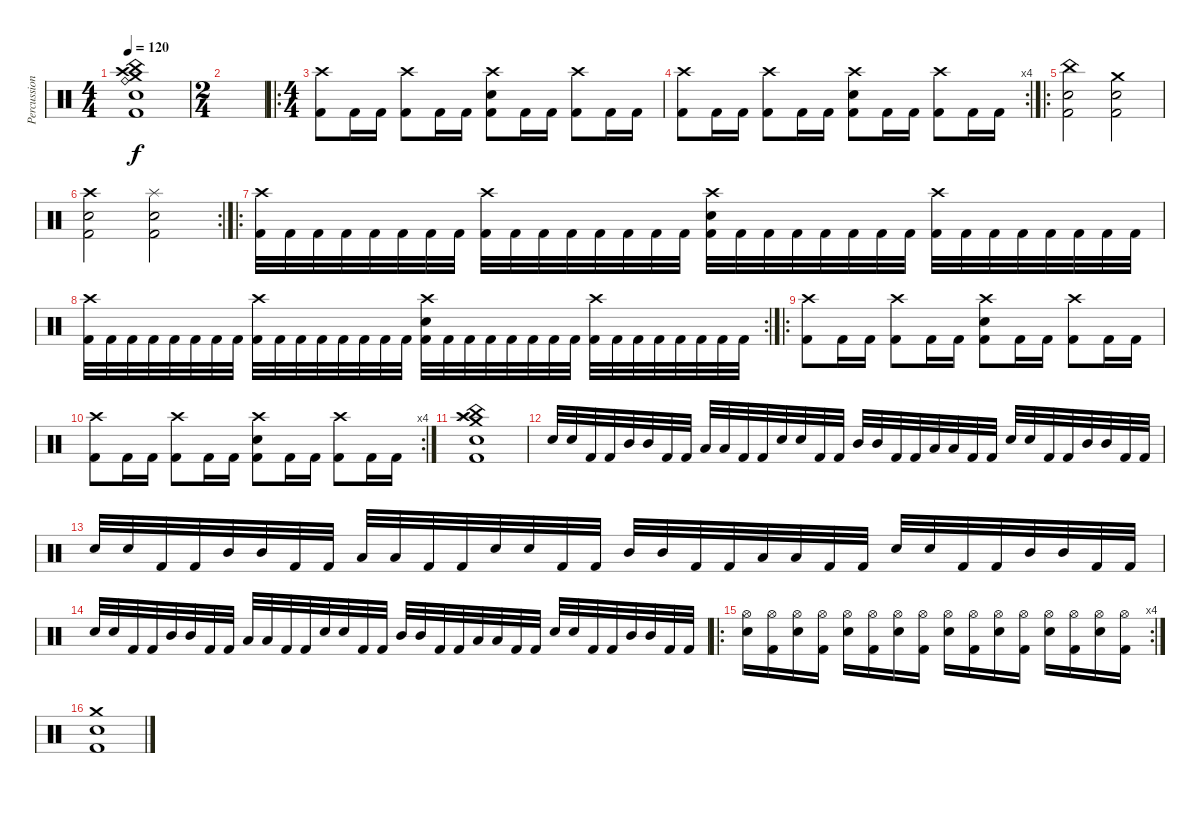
\track ("Percussion" "Percussion") {instrument percussion}
\staff {score}
\articulation defaults
\ts (4 4)
\tempo 120
\clef neutral
\ks c
("Crash medium (hit)" "Crash high (hit)" "China (hit)" "Electric Snare (hit)" "Ride (bell)" "Kick (hit) 2").1{dy f} |
\ts (2 4)
|
\ro
\ts (4 4)
("Crash high (hit)" "Kick (hit) 2").8 "Kick (hit) 2".16 "Kick (hit) 2".16 ("Crash high (hit)" "Kick (hit) 2").8 "Kick (hit) 2".16 "Kick (hit) 2".16 ("Crash high (hit)" "Electric Snare (hit)" "Kick (hit) 2").8 "Kick (hit) 2".16 "Kick (hit) 2".16 ("Crash high (hit)" "Kick (hit) 2").8 "Kick (hit) 2".16 "Kick (hit) 2".16 |
\rc 4
("Crash high (hit)" "Kick (hit) 2").8 "Kick (hit) 2".16 "Kick (hit) 2".16 ("Crash high (hit)" "Kick (hit) 2").8 "Kick (hit) 2".16 "Kick (hit) 2".16 ("Crash high (hit)" "Electric Snare (hit)" "Kick (hit) 2").8 "Kick (hit) 2".16 "Kick (hit) 2".16 ("Crash high (hit)" "Kick (hit) 2").8 "Kick (hit) 2".16 "Kick (hit) 2".16 |
\ro
("China (hit)" "Electric Snare (hit)" "Kick (hit) 2").2 ("Crash medium (hit)" "Electric Snare (hit)" "Kick (hit) 2").2 |
\rc 2
("Crash high (hit)" "Electric Snare (hit)" "Kick (hit) 2").2 ("Splash (hit)" "Electric Snare (hit)" "Kick (hit) 2").2 |
\ro
("Crash high (hit)" "Kick (hit) 2").32 "Kick (hit) 2".32 "Kick (hit) 2".32 "Kick (hit) 2".32 "Kick (hit) 2".32 "Kick (hit) 2".32 "Kick (hit) 2".32 "Kick (hit) 2".32 ("Crash high (hit)" "Kick (hit) 2").32 "Kick (hit) 2".32 "Kick (hit) 2".32 "Kick (hit) 2".32 "Kick (hit) 2".32 "Kick (hit) 2".32 "Kick (hit) 2".32 "Kick (hit) 2".32 ("Crash high (hit)" "Electric Snare (hit)" "Kick (hit) 2").32 "Kick (hit) 2".32 "Kick (hit) 2".32 "Kick (hit) 2".32 "Kick (hit) 2".32 "Kick (hit) 2".32 "Kick (hit) 2".32 "Kick (hit) 2".32 ("Crash high (hit)" "Kick (hit) 2").32 "Kick (hit) 2".32 "Kick (hit) 2".32 "Kick (hit) 2".32 "Kick (hit) 2".32 "Kick (hit) 2".32 "Kick (hit) 2".32 "Kick (hit) 2".32 |
\rc 2
("Crash high (hit)" "Kick (hit) 2").32 "Kick (hit) 2".32 "Kick (hit) 2".32 "Kick (hit) 2".32 "Kick (hit) 2".32 "Kick (hit) 2".32 "Kick (hit) 2".32 "Kick (hit) 2".32 ("Crash high (hit)" "Kick (hit) 2").32 "Kick (hit) 2".32 "Kick (hit) 2".32 "Kick (hit) 2".32 "Kick (hit) 2".32 "Kick (hit) 2".32 "Kick (hit) 2".32 "Kick (hit) 2".32 ("Crash high (hit)" "Electric Snare (hit)" "Kick (hit) 2").32 "Kick (hit) 2".32 "Kick (hit) 2".32 "Kick (hit) 2".32 "Kick (hit) 2".32 "Kick (hit) 2".32 "Kick (hit) 2".32 "Kick (hit) 2".32 ("Crash high (hit)" "Kick (hit) 2").32 "Kick (hit) 2".32 "Kick (hit) 2".32 "Kick (hit) 2".32 "Kick (hit) 2".32 "Kick (hit) 2".32 "Kick (hit) 2".32 "Kick (hit) 2".32 |
\ro
("Crash high (hit)" "Kick (hit) 2").8 "Kick (hit) 2".16 "Kick (hit) 2".16 ("Crash high (hit)" "Kick (hit) 2").8 "Kick (hit) 2".16 "Kick (hit) 2".16 ("Crash high (hit)" "Electric Snare (hit)" "Kick (hit) 2").8 "Kick (hit) 2".16 "Kick (hit) 2".16 ("Crash high (hit)" "Kick (hit) 2").8 "Kick (hit) 2".16 "Kick (hit) 2".16 |
\rc 4
("Crash high (hit)" "Kick (hit) 2").8 "Kick (hit) 2".16 "Kick (hit) 2".16 ("Crash high (hit)" "Kick (hit) 2").8 "Kick (hit) 2".16 "Kick (hit) 2".16 ("Crash high (hit)" "Electric Snare (hit)" "Kick (hit) 2").8 "Kick (hit) 2".16 "Kick (hit) 2".16 ("Crash high (hit)" "Kick (hit) 2").8 "Kick (hit) 2".16 "Kick (hit) 2".16 |
("Crash high (hit)" "Crash medium (hit)" "Splash (hit)" "China (hit)" "Electric Snare (hit)" "Kick (hit) 2").1 |
"Electric Snare (hit)".32 "Electric Snare (hit)".32 "Kick (hit) 2".32 "Kick (hit) 2".32 "Mid Tom (hit)".32 "Mid Tom (hit)".32 "Kick (hit) 2".32 "Kick (hit) 2".32 "Low Tom (hit)".32 "Low Tom (hit)".32 "Kick (hit) 2".32 "Kick (hit) 2".32 "Electric Snare (hit)".32 "Electric Snare (hit)".32 "Kick (hit) 2".32 "Kick (hit) 2".32 "Mid Tom (hit)".32 "Mid Tom (hit)".32 "Kick (hit) 2".32 "Kick (hit) 2".32 "Low Tom (hit)".32 "Low Tom (hit)".32 "Kick (hit) 2".32 "Kick (hit) 2".32 "Electric Snare (hit)".32 "Electric Snare (hit)".32 "Kick (hit) 2".32 "Kick (hit) 2".32 "Mid Tom (hit)".32 "Mid Tom (hit)".32 "Kick (hit) 2".32 "Kick (hit) 2".32 |
"Electric Snare (hit)".32 "Electric Snare (hit)".32 "Kick (hit) 2".32 "Kick (hit) 2".32 "Mid Tom (hit)".32 "Mid Tom (hit)".32 "Kick (hit) 2".32 "Kick (hit) 2".32 "Low Tom (hit)".32 "Low Tom (hit)".32 "Kick (hit) 2".32 "Kick (hit) 2".32 "Electric Snare (hit)".32 "Electric Snare (hit)".32 "Kick (hit) 2".32 "Kick (hit) 2".32 "Mid Tom (hit)".32 "Mid Tom (hit)".32 "Kick (hit) 2".32 "Kick (hit) 2".32 "Low Tom (hit)".32 "Low Tom (hit)".32 "Kick (hit) 2".32 "Kick (hit) 2".32 "Electric Snare (hit)".32 "Electric Snare (hit)".32 "Kick (hit) 2".32 "Kick (hit) 2".32 "Mid Tom (hit)".32 "Mid Tom (hit)".32 "Kick (hit) 2".32 "Kick (hit) 2".32 |
"Electric Snare (hit)".32 "Electric Snare (hit)".32 "Kick (hit) 2".32 "Kick (hit) 2".32 "Mid Tom (hit)".32 "Mid Tom (hit)".32 "Kick (hit) 2".32 "Kick (hit) 2".32 "Low Tom (hit)".32 "Low Tom (hit)".32 "Kick (hit) 2".32 "Kick (hit) 2".32 "Electric Snare (hit)".32 "Electric Snare (hit)".32 "Kick (hit) 2".32 "Kick (hit) 2".32 "Mid Tom (hit)".32 "Mid Tom (hit)".32 "Kick (hit) 2".32 "Kick (hit) 2".32 "Low Tom (hit)".32 "Low Tom (hit)".32 "Kick (hit) 2".32 "Kick (hit) 2".32 "Electric Snare (hit)".32 "Electric Snare (hit)".32 "Kick (hit) 2".32 "Kick (hit) 2".32 "Mid Tom (hit)".32 "Mid Tom (hit)".32 "Kick (hit) 2".32 "Kick (hit) 2".32 |
\ro
\rc 4
("Hi-Hat (open)" "Electric Snare (hit)").16 ("Hi-Hat (open)" "Kick (hit) 2").16 ("Hi-Hat (open)" "Electric Snare (hit)").16 ("Hi-Hat (open)" "Kick (hit) 2").16 ("Hi-Hat (open)" "Electric Snare (hit)").16 ("Hi-Hat (open)" "Kick (hit) 2").16 ("Hi-Hat (open)" "Electric Snare (hit)").16 ("Hi-Hat (open)" "Kick (hit) 2").16 ("Hi-Hat (open)" "Electric Snare (hit)").16 ("Hi-Hat (open)" "Kick (hit) 2").16 ("Hi-Hat (open)" "Electric Snare (hit)").16 ("Hi-Hat (open)" "Kick (hit) 2").16 ("Hi-Hat (open)" "Electric Snare (hit)").16 ("Hi-Hat (open)" "Kick (hit) 2").16 ("Hi-Hat (open)" "Electric Snare (hit)").16 ("Hi-Hat (open)" "Kick (hit) 2").16 |
("Crash medium (hit)" "Kick (hit) 2" "Electric Snare (hit)").1
